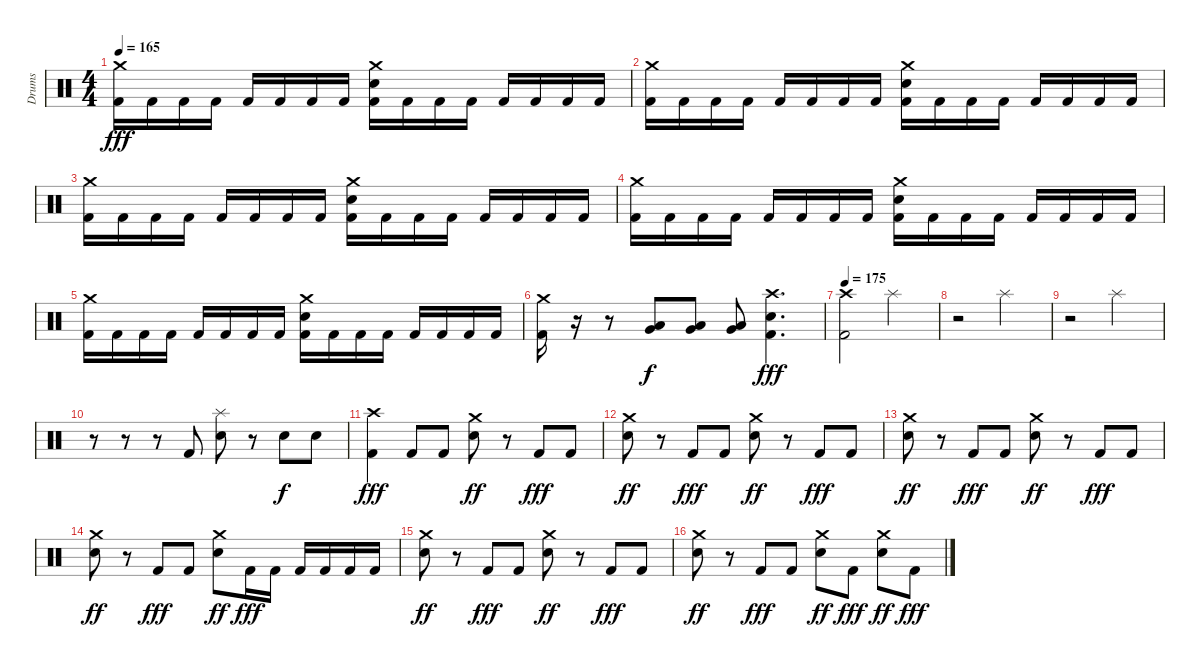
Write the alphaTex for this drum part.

\track ("Drums" "Drums") {instrument percussion}
\staff {score}
\articulation defaults
\ts (4 4)
\tempo 165
\clef neutral
\ks c
("Crash medium (hit)" "Kick (hit) 2").16{dy fff} "Kick (hit) 2".16 "Kick (hit) 2".16 "Kick (hit) 2".16 "Kick (hit) 2".16 "Kick (hit) 2".16 "Kick (hit) 2".16 "Kick (hit) 2".16 ("Crash medium (hit)" "Snare (hit) 2" "Kick (hit) 2").16 "Kick (hit) 2".16 "Kick (hit) 2".16 "Kick (hit) 2".16 "Kick (hit) 2".16 "Kick (hit) 2".16 "Kick (hit) 2".16 "Kick (hit) 2".16 |
("Crash medium (hit)" "Kick (hit) 2").16 "Kick (hit) 2".16 "Kick (hit) 2".16 "Kick (hit) 2".16 "Kick (hit) 2".16 "Kick (hit) 2".16 "Kick (hit) 2".16 "Kick (hit) 2".16 ("Crash medium (hit)" "Snare (hit) 2" "Kick (hit) 2").16 "Kick (hit) 2".16 "Kick (hit) 2".16 "Kick (hit) 2".16 "Kick (hit) 2".16 "Kick (hit) 2".16 "Kick (hit) 2".16 "Kick (hit) 2".16 |
("Crash medium (hit)" "Kick (hit) 2").16 "Kick (hit) 2".16 "Kick (hit) 2".16 "Kick (hit) 2".16 "Kick (hit) 2".16 "Kick (hit) 2".16 "Kick (hit) 2".16 "Kick (hit) 2".16 ("Crash medium (hit)" "Snare (hit) 2" "Kick (hit) 2").16 "Kick (hit) 2".16 "Kick (hit) 2".16 "Kick (hit) 2".16 "Kick (hit) 2".16 "Kick (hit) 2".16 "Kick (hit) 2".16 "Kick (hit) 2".16 |
("Crash medium (hit)" "Kick (hit) 2").16 "Kick (hit) 2".16 "Kick (hit) 2".16 "Kick (hit) 2".16 "Kick (hit) 2".16 "Kick (hit) 2".16 "Kick (hit) 2".16 "Kick (hit) 2".16 ("Crash medium (hit)" "Snare (hit) 2" "Kick (hit) 2").16 "Kick (hit) 2".16 "Kick (hit) 2".16 "Kick (hit) 2".16 "Kick (hit) 2".16 "Kick (hit) 2".16 "Kick (hit) 2".16 "Kick (hit) 2".16 |
("Crash medium (hit)" "Kick (hit) 2").16 "Kick (hit) 2".16 "Kick (hit) 2".16 "Kick (hit) 2".16 "Kick (hit) 2".16 "Kick (hit) 2".16 "Kick (hit) 2".16 "Kick (hit) 2".16 ("Crash medium (hit)" "Snare (hit) 2" "Kick (hit) 2").16 "Kick (hit) 2".16 "Kick (hit) 2".16 "Kick (hit) 2".16 "Kick (hit) 2".16 "Kick (hit) 2".16 "Kick (hit) 2".16 "Kick (hit) 2".16 |
("Crash medium (hit)" "Kick (hit) 2").16 r.16 r.8 ("Very Low Tom (hit)" "Low Floor Tom (hit)").8{dy f} ("Very Low Tom (hit)" "Low Floor Tom (hit)").8 ("Very Low Tom (hit)" "Low Floor Tom (hit)").8 ("Crash high (hit)" "Snare (hit) 2" "Kick (hit) 2").4{d dy fff} |
\tempo 175
("Crash high (hit)" "Kick (hit) 2").2 "Splash (hit)".2 |
r.2 "Splash (hit)".2 |
r.2 "Splash (hit)".2 |
r.8 r.8 r.8 "Kick (hit) 2".8 ("Splash (hit)" "Snare (hit) 2").8 r.8 "Snare (hit) 2".8{dy f} "Snare (hit) 2".8 |
("Crash high (hit)" "Kick (hit) 2").4{dy fff} "Kick (hit) 2".8 "Kick (hit) 2".8 ("Crash medium (hit)" "Snare (hit) 2").8{dy ff} r.8 "Kick (hit) 2".8{dy fff} "Kick (hit) 2".8 |
("Crash medium (hit)" "Snare (hit) 2").8{dy ff} r.8 "Kick (hit) 2".8{dy fff} "Kick (hit) 2".8 ("Crash medium (hit)" "Snare (hit) 2").8{dy ff} r.8 "Kick (hit) 2".8{dy fff} "Kick (hit) 2".8 |
("Crash medium (hit)" "Snare (hit) 2").8{dy ff} r.8 "Kick (hit) 2".8{dy fff} "Kick (hit) 2".8 ("Crash medium (hit)" "Snare (hit) 2").8{dy ff} r.8 "Kick (hit) 2".8{dy fff} "Kick (hit) 2".8 |
("Crash medium (hit)" "Snare (hit) 2").8{dy ff} r.8 "Kick (hit) 2".8{dy fff} "Kick (hit) 2".8 ("Crash medium (hit)" "Snare (hit) 2").8{dy ff} "Kick (hit) 2".16{dy fff} "Kick (hit) 2".16 "Kick (hit) 2".16 "Kick (hit) 2".16 "Kick (hit) 2".16 "Kick (hit) 2".16 |
("Crash medium (hit)" "Snare (hit) 2").8{dy ff} r.8 "Kick (hit) 2".8{dy fff} "Kick (hit) 2".8 ("Crash medium (hit)" "Snare (hit) 2").8{dy ff} r.8 "Kick (hit) 2".8{dy fff} "Kick (hit) 2".8 |
("Crash medium (hit)" "Snare (hit) 2").8{dy ff} r.8 "Kick (hit) 2".8{dy fff} "Kick (hit) 2".8 ("Crash medium (hit)" "Snare (hit) 2").8{dy ff} "Kick (hit) 2".8{dy fff} ("Crash medium (hit)" "Snare (hit) 2").8{dy ff} "Kick (hit) 2".8{dy fff}
